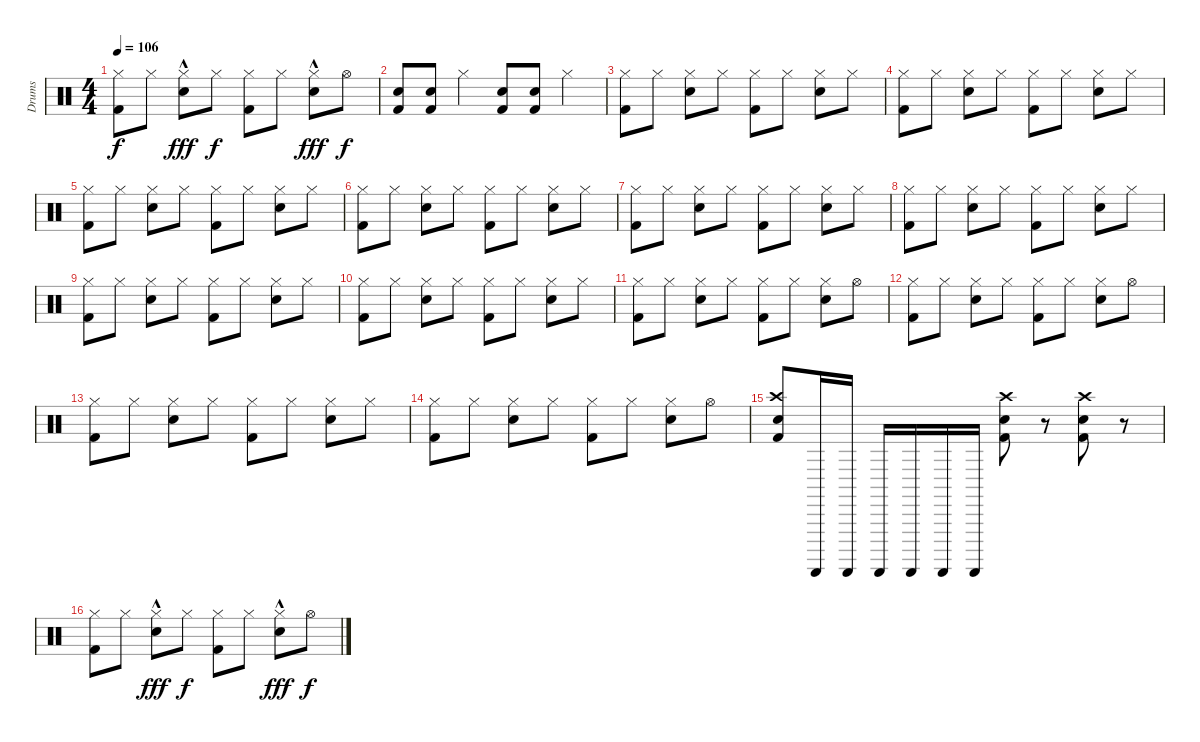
\track ("Drums" "Drums") {instrument percussion}
\staff {score}
\articulation defaults
\ts (4 4)
\tempo 106
\clef neutral
\ks c
("Hi-Hat (closed)" "Kick (hit) 2").8{dy f} "Hi-Hat (closed)".8 ("Hi-Hat (closed)" "Hand Clap (hit)"{hac}).8{dy fff} "Hi-Hat (closed)".8{dy f} ("Hi-Hat (closed)" "Kick (hit) 2").8 "Hi-Hat (closed)".8 ("Hi-Hat (closed)" "Hand Clap (hit)"{hac}).8{dy fff} "Hi-Hat (open)".8{dy f} |
("Snare (hit) 2" "Kick (hit) 2").8 ("Snare (hit) 2" "Kick (hit) 2").8 "Hi-Hat (closed)".4 ("Snare (hit) 2" "Kick (hit) 2").8 ("Snare (hit) 2" "Kick (hit) 2").8 "Hi-Hat (closed)".4 |
("Hi-Hat (closed)" "Kick (hit) 2").8 "Hi-Hat (closed)".8 ("Hi-Hat (closed)" "Snare (hit) 2").8 "Hi-Hat (closed)".8 ("Hi-Hat (closed)" "Kick (hit) 2").8 "Hi-Hat (closed)".8 ("Hi-Hat (closed)" "Snare (hit) 2").8 "Hi-Hat (closed)".8 |
("Hi-Hat (closed)" "Kick (hit) 2").8 "Hi-Hat (closed)".8 ("Hi-Hat (closed)" "Snare (hit) 2").8 "Hi-Hat (closed)".8 ("Hi-Hat (closed)" "Kick (hit) 2").8 "Hi-Hat (closed)".8 ("Hi-Hat (closed)" "Snare (hit) 2").8 "Hi-Hat (closed)".8 |
("Hi-Hat (closed)" "Kick (hit) 2").8 "Hi-Hat (closed)".8 ("Hi-Hat (closed)" "Snare (hit) 2").8 "Hi-Hat (closed)".8 ("Hi-Hat (closed)" "Kick (hit) 2").8 "Hi-Hat (closed)".8 ("Hi-Hat (closed)" "Snare (hit) 2").8 "Hi-Hat (closed)".8 |
("Hi-Hat (closed)" "Kick (hit) 2").8 "Hi-Hat (closed)".8 ("Hi-Hat (closed)" "Snare (hit) 2").8 "Hi-Hat (closed)".8 ("Hi-Hat (closed)" "Kick (hit) 2").8 "Hi-Hat (closed)".8 ("Hi-Hat (closed)" "Snare (hit) 2").8 "Hi-Hat (closed)".8 |
("Hi-Hat (closed)" "Kick (hit) 2").8 "Hi-Hat (closed)".8 ("Hi-Hat (closed)" "Snare (hit) 2").8 "Hi-Hat (closed)".8 ("Hi-Hat (closed)" "Kick (hit) 2").8 "Hi-Hat (closed)".8 ("Hi-Hat (closed)" "Snare (hit) 2").8 "Hi-Hat (closed)".8 |
("Hi-Hat (closed)" "Kick (hit) 2").8 "Hi-Hat (closed)".8 ("Hi-Hat (closed)" "Snare (hit) 2").8 "Hi-Hat (closed)".8 ("Hi-Hat (closed)" "Kick (hit) 2").8 "Hi-Hat (closed)".8 ("Hi-Hat (closed)" "Snare (hit) 2").8 "Hi-Hat (closed)".8 |
("Hi-Hat (closed)" "Kick (hit) 2").8 "Hi-Hat (closed)".8 ("Hi-Hat (closed)" "Snare (hit) 2").8 "Hi-Hat (closed)".8 ("Hi-Hat (closed)" "Kick (hit) 2").8 "Hi-Hat (closed)".8 ("Hi-Hat (closed)" "Snare (hit) 2").8 "Hi-Hat (closed)".8 |
("Hi-Hat (closed)" "Kick (hit) 2").8 "Hi-Hat (closed)".8 ("Hi-Hat (closed)" "Snare (hit) 2").8 "Hi-Hat (closed)".8 ("Hi-Hat (closed)" "Kick (hit) 2").8 "Hi-Hat (closed)".8 ("Hi-Hat (closed)" "Snare (hit) 2").8 "Hi-Hat (closed)".8 |
("Hi-Hat (closed)" "Kick (hit) 2").8 "Hi-Hat (closed)".8 ("Hi-Hat (closed)" "Snare (hit) 2").8 "Hi-Hat (closed)".8 ("Hi-Hat (closed)" "Kick (hit) 2").8 "Hi-Hat (closed)".8 ("Hi-Hat (closed)" "Snare (hit) 2").8 "Hi-Hat (open)".8 |
("Hi-Hat (closed)" "Kick (hit) 2").8 "Hi-Hat (closed)".8 ("Hi-Hat (closed)" "Snare (hit) 2").8 "Hi-Hat (closed)".8 ("Hi-Hat (closed)" "Kick (hit) 2").8 "Hi-Hat (closed)".8 ("Hi-Hat (closed)" "Snare (hit) 2").8 "Hi-Hat (open)".8 |
("Hi-Hat (closed)" "Kick (hit) 2").8 "Hi-Hat (closed)".8 ("Hi-Hat (closed)" "Snare (hit) 2").8 "Hi-Hat (closed)".8 ("Hi-Hat (closed)" "Kick (hit) 2").8 "Hi-Hat (closed)".8 ("Hi-Hat (closed)" "Snare (hit) 2").8 "Hi-Hat (closed)".8 |
("Hi-Hat (closed)" "Kick (hit) 2").8 "Hi-Hat (closed)".8 ("Hi-Hat (closed)" "Snare (hit) 2").8 "Hi-Hat (closed)".8 ("Hi-Hat (closed)" "Kick (hit) 2").8 "Hi-Hat (closed)".8 ("Hi-Hat (closed)" "Snare (hit) 2").8 "Hi-Hat (open)".8 |
("Crash high (hit)" "Snare (hit) 2" "Kick (hit) 2").8 "Guiro (scrap-return)".16 "Guiro (scrap-return)".16 "Guiro (scrap-return)".16 "Guiro (scrap-return)".16 "Guiro (scrap-return)".16 "Guiro (scrap-return)".16 ("Crash high (hit)" "Snare (hit) 2" "Kick (hit) 2").8 r.8 ("Crash high (hit)" "Snare (hit) 2" "Kick (hit) 2").8 r.8 |
("Hi-Hat (closed)" "Kick (hit) 2").8 "Hi-Hat (closed)".8 ("Hi-Hat (closed)" "Hand Clap (hit)"{hac}).8{dy fff} "Hi-Hat (closed)".8{dy f} ("Hi-Hat (closed)" "Kick (hit) 2").8 "Hi-Hat (closed)".8 ("Hi-Hat (closed)" "Hand Clap (hit)"{hac}).8{dy fff} "Hi-Hat (open)".8{dy f}
